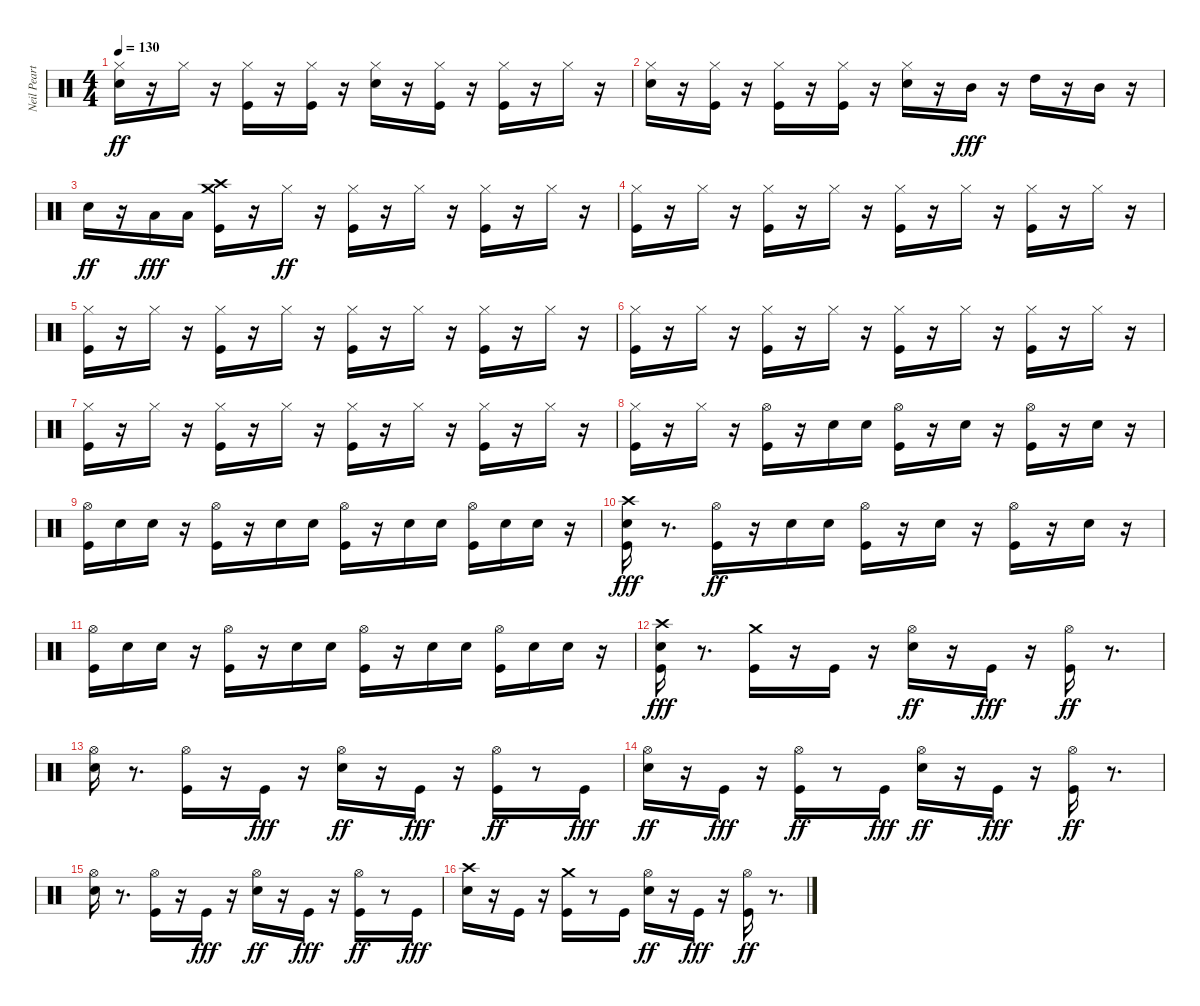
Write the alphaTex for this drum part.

\track ("Neil Peart" "Neil Peart") {instrument percussion}
\staff {score}
\articulation defaults
\ts (4 4)
\tempo 130
\clef neutral
\ks c
("Snare (hit) 2" "Hi-Hat (closed)").16{dy ff} r.16 "Hi-Hat (closed)".16 r.16 ("Kick (hit)" "Hi-Hat (closed)").16 r.16 ("Kick (hit)" "Hi-Hat (closed)").16 r.16 ("Snare (hit) 2" "Hi-Hat (closed)").16 r.16 ("Kick (hit)" "Hi-Hat (closed)").16 r.16 ("Kick (hit)" "Hi-Hat (closed)").16 r.16 "Hi-Hat (closed)".16 r.16 |
("Snare (hit) 2" "Hi-Hat (closed)").16 r.16 ("Kick (hit)" "Hi-Hat (closed)").16 r.16 ("Kick (hit)" "Hi-Hat (closed)").16 r.16 ("Kick (hit)" "Hi-Hat (closed)").16 r.16 ("Snare (hit) 2" "Hi-Hat (closed)").16 r.16 "Mid Tom (hit)".16{dy fff} r.16 "High Tom (hit)".16 r.16 "Mid Tom (hit)".16 r.16 |
"Snare (hit) 2".16{dy ff} r.16 "Low Tom (hit)".16{dy fff} "Low Tom (hit)".16 ("Crash medium (hit)" "Kick (hit)" "Crash high (hit)").16 r.16 "Hi-Hat (closed)".16{dy ff} r.16 ("Kick (hit)" "Hi-Hat (closed)").16 r.16 "Hi-Hat (closed)".16 r.16 ("Kick (hit)" "Hi-Hat (closed)").16 r.16 "Hi-Hat (closed)".16 r.16 |
("Kick (hit)" "Hi-Hat (closed)").16 r.16 "Hi-Hat (closed)".16 r.16 ("Kick (hit)" "Hi-Hat (closed)").16 r.16 "Hi-Hat (closed)".16 r.16 ("Kick (hit)" "Hi-Hat (closed)").16 r.16 "Hi-Hat (closed)".16 r.16 ("Kick (hit)" "Hi-Hat (closed)").16 r.16 "Hi-Hat (closed)".16 r.16 |
("Kick (hit)" "Hi-Hat (closed)").16 r.16 "Hi-Hat (closed)".16 r.16 ("Kick (hit)" "Hi-Hat (closed)").16 r.16 "Hi-Hat (closed)".16 r.16 ("Kick (hit)" "Hi-Hat (closed)").16 r.16 "Hi-Hat (closed)".16 r.16 ("Kick (hit)" "Hi-Hat (closed)").16 r.16 "Hi-Hat (closed)".16 r.16 |
("Kick (hit)" "Hi-Hat (closed)").16 r.16 "Hi-Hat (closed)".16 r.16 ("Kick (hit)" "Hi-Hat (closed)").16 r.16 "Hi-Hat (closed)".16 r.16 ("Kick (hit)" "Hi-Hat (closed)").16 r.16 "Hi-Hat (closed)".16 r.16 ("Kick (hit)" "Hi-Hat (closed)").16 r.16 "Hi-Hat (closed)".16 r.16 |
("Kick (hit)" "Hi-Hat (closed)").16 r.16 "Hi-Hat (closed)".16 r.16 ("Kick (hit)" "Hi-Hat (closed)").16 r.16 "Hi-Hat (closed)".16 r.16 ("Kick (hit)" "Hi-Hat (closed)").16 r.16 "Hi-Hat (closed)".16 r.16 ("Kick (hit)" "Hi-Hat (closed)").16 r.16 "Hi-Hat (closed)".16 r.16 |
("Kick (hit)" "Hi-Hat (closed)").16 r.16 "Hi-Hat (closed)".16 r.16 ("Kick (hit)" "Hi-Hat (open)").16 r.16 "Snare (hit) 2".16 "Snare (hit) 2".16 ("Kick (hit)" "Hi-Hat (open)").16 r.16 "Snare (hit) 2".16 r.16 ("Kick (hit)" "Hi-Hat (open)").16 r.16 "Snare (hit) 2".16 r.16 |
("Kick (hit)" "Hi-Hat (open)").16 "Snare (hit) 2".16 "Snare (hit) 2".16 r.16 ("Kick (hit)" "Hi-Hat (open)").16 r.16 "Snare (hit) 2".16 "Snare (hit) 2".16 ("Kick (hit)" "Hi-Hat (open)").16 r.16 "Snare (hit) 2".16 "Snare (hit) 2".16 ("Kick (hit)" "Hi-Hat (open)").16 "Snare (hit) 2".16 "Snare (hit) 2".16 r.16 |
("Kick (hit)" "Snare (hit) 2" "Crash high (hit)").16{dy fff} r.8{d} ("Kick (hit)" "Hi-Hat (open)").16{dy ff} r.16 "Snare (hit) 2".16 "Snare (hit) 2".16 ("Kick (hit)" "Hi-Hat (open)").16 r.16 "Snare (hit) 2".16 r.16 ("Kick (hit)" "Hi-Hat (open)").16 r.16 "Snare (hit) 2".16 r.16 |
("Kick (hit)" "Hi-Hat (open)").16 "Snare (hit) 2".16 "Snare (hit) 2".16 r.16 ("Kick (hit)" "Hi-Hat (open)").16 r.16 "Snare (hit) 2".16 "Snare (hit) 2".16 ("Kick (hit)" "Hi-Hat (open)").16 r.16 "Snare (hit) 2".16 "Snare (hit) 2".16 ("Kick (hit)" "Hi-Hat (open)").16 "Snare (hit) 2".16 "Snare (hit) 2".16 r.16 |
("Kick (hit)" "Snare (hit) 2" "Crash high (hit)").16{dy fff} r.8{d} ("Crash medium (hit)" "Kick (hit)").16 r.16 "Kick (hit)".16 r.16 ("Snare (hit) 2" "Hi-Hat (open)").16{dy ff} r.16 "Kick (hit)".16{dy fff} r.16 ("Kick (hit)" "Hi-Hat (open)").16{dy ff} r.8{d} |
("Snare (hit) 2" "Hi-Hat (open)").16 r.8{d} ("Kick (hit)" "Hi-Hat (open)").16 r.16 "Kick (hit)".16{dy fff} r.16 ("Snare (hit) 2" "Hi-Hat (open)").16{dy ff} r.16 "Kick (hit)".16{dy fff} r.16 ("Kick (hit)" "Hi-Hat (open)").16{dy ff} r.8 "Kick (hit)".16{dy fff} |
("Snare (hit) 2" "Hi-Hat (open)").16{dy ff} r.16 "Kick (hit)".16{dy fff} r.16 ("Kick (hit)" "Hi-Hat (open)").16{dy ff} r.8 "Kick (hit)".16{dy fff} ("Snare (hit) 2" "Hi-Hat (open)").16{dy ff} r.16 "Kick (hit)".16{dy fff} r.16 ("Kick (hit)" "Hi-Hat (open)").16{dy ff} r.8{d} |
("Snare (hit) 2" "Hi-Hat (open)").16 r.8{d} ("Kick (hit)" "Hi-Hat (open)").16 r.16 "Kick (hit)".16{dy fff} r.16 ("Snare (hit) 2" "Hi-Hat (open)").16{dy ff} r.16 "Kick (hit)".16{dy fff} r.16 ("Kick (hit)" "Hi-Hat (open)").16{dy ff} r.8 "Kick (hit)".16{dy fff} |
("Snare (hit) 2" "Crash high (hit)").16 r.16 "Kick (hit)".16 r.16 ("Crash medium (hit)" "Kick (hit)").16 r.8 "Kick (hit)".16 ("Snare (hit) 2" "Hi-Hat (open)").16{dy ff} r.16 "Kick (hit)".16{dy fff} r.16 ("Kick (hit)" "Hi-Hat (open)").16{dy ff} r.8{d}
